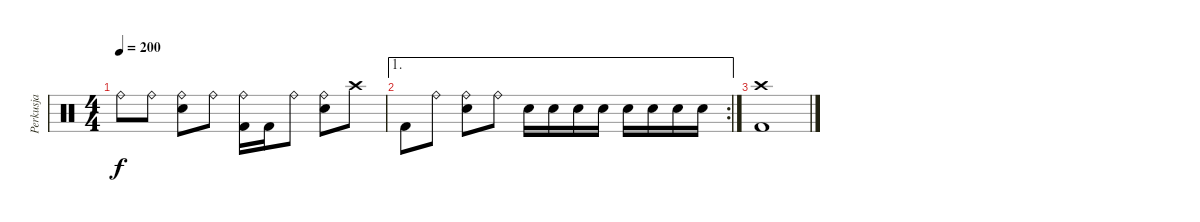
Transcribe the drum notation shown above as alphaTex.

\track ("Perkusja" "Perkusja") {instrument percussion}
\staff {score}
\articulation defaults
\ts (4 4)
\tempo 200
\clef neutral
\ks c "Ride (bell)".8{dy f} "Ride (bell)".8
("Ride (bell)" "Snare (hit) 2").8 "Ride (bell)".8 ("Ride (bell)" "Kick (hit) 2").16 "Kick (hit) 2".16 "Ride (bell)".8 ("Ride (bell)" "Snare (hit) 2").8 "Crash high (hit)".8 |
\ae 1
\rc 2 "Kick (hit) 2".8 "Ride (bell)".8
("Ride (bell)" "Snare (hit) 2").8 "Ride (bell)".8 "Snare (hit) 2".16 "Snare (hit) 2".16 "Snare (hit) 2".16 "Snare (hit) 2".16 "Snare (hit) 2".16 "Snare (hit) 2".16 "Snare (hit) 2".16 "Snare (hit) 2".16 |
("Crash high (hit)" "Kick (hit) 2").1
